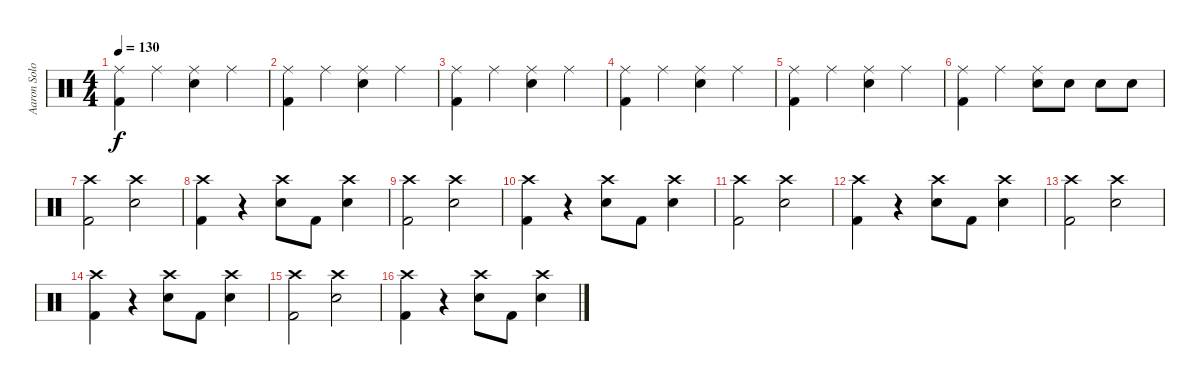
\track ("Aaron Solowoniuk" "Aaron Solo") {instrument percussion}
\staff {score}
\articulation defaults
\ts (4 4)
\tempo 130
\clef neutral
\ks c
("Ride (middle)" "Kick (hit) 2").4{dy f} "Ride (middle)".4 ("Ride (middle)" "Electric Snare (hit)").4 "Ride (middle)".4 |
("Ride (middle)" "Kick (hit) 2").4 "Ride (middle)".4 ("Ride (middle)" "Electric Snare (hit)").4 "Ride (middle)".4 |
("Ride (middle)" "Kick (hit) 2").4 "Ride (middle)".4 ("Ride (middle)" "Electric Snare (hit)").4 "Ride (middle)".4 |
("Ride (middle)" "Kick (hit) 2").4 "Ride (middle)".4 ("Ride (middle)" "Electric Snare (hit)").4 "Ride (middle)".4 |
("Ride (middle)" "Kick (hit) 2").4 "Ride (middle)".4 ("Ride (middle)" "Electric Snare (hit)").4 "Ride (middle)".4 |
("Ride (middle)" "Kick (hit) 2").4 "Ride (middle)".4 ("Ride (middle)" "Electric Snare (hit)").8 "Electric Snare (hit)".8 "Electric Snare (hit)".8 "Electric Snare (hit)".8 |
("Crash high (hit)" "Kick (hit) 2").2 ("Crash high (hit)" "Electric Snare (hit)").2 |
("Crash high (hit)" "Kick (hit) 2").4 r.4 ("Crash high (hit)" "Electric Snare (hit)").8 "Kick (hit) 2".8 ("Crash high (hit)" "Electric Snare (hit)").4 |
("Crash high (hit)" "Kick (hit) 2").2 ("Crash high (hit)" "Electric Snare (hit)").2 |
("Crash high (hit)" "Kick (hit) 2").4 r.4 ("Crash high (hit)" "Electric Snare (hit)").8 "Kick (hit) 2".8 ("Crash high (hit)" "Electric Snare (hit)").4 |
("Crash high (hit)" "Kick (hit) 2").2 ("Crash high (hit)" "Electric Snare (hit)").2 |
("Crash high (hit)" "Kick (hit) 2").4 r.4 ("Crash high (hit)" "Electric Snare (hit)").8 "Kick (hit) 2".8 ("Crash high (hit)" "Electric Snare (hit)").4 |
("Crash high (hit)" "Kick (hit) 2").2 ("Crash high (hit)" "Electric Snare (hit)").2 |
("Crash high (hit)" "Kick (hit) 2").4 r.4 ("Crash high (hit)" "Electric Snare (hit)").8 "Kick (hit) 2".8 ("Crash high (hit)" "Electric Snare (hit)").4 |
("Crash high (hit)" "Kick (hit) 2").2 ("Crash high (hit)" "Electric Snare (hit)").2 |
("Crash high (hit)" "Kick (hit) 2").4 r.4 ("Crash high (hit)" "Electric Snare (hit)").8 "Kick (hit) 2".8 ("Crash high (hit)" "Electric Snare (hit)").4
